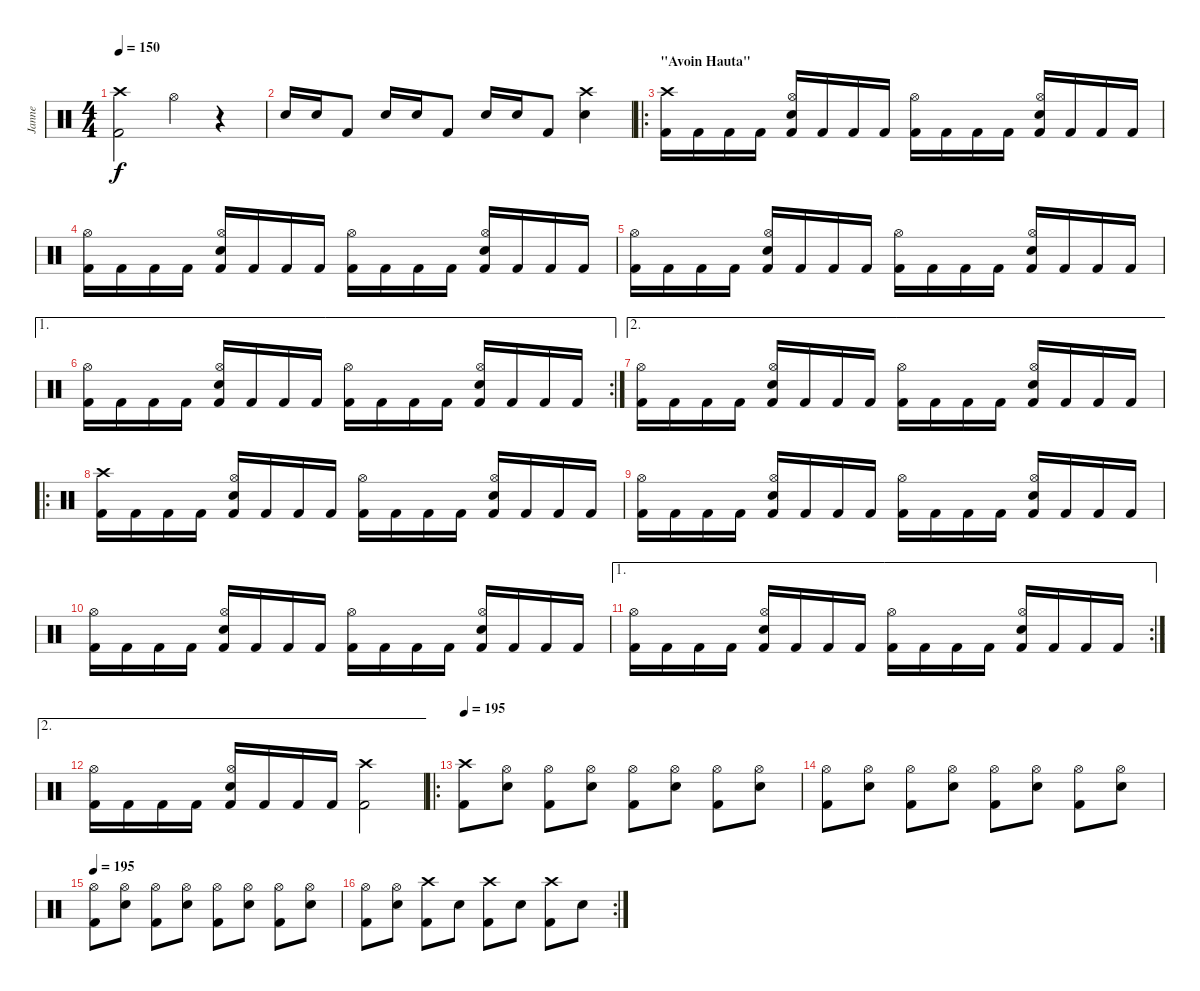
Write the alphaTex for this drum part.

\track ("Janne" "Janne") {instrument percussion}
\staff {score}
\articulation defaults
\ts (4 4)
\tempo 150
\clef neutral
\ks c
("Crash high (hit)" "Kick (hit) 2").2{dy f} "Hi-Hat (open)".4 r.4 |
"Electric Snare (hit)".16 "Electric Snare (hit)".16 "Kick (hit) 2".8 "Electric Snare (hit)".16 "Electric Snare (hit)".16 "Kick (hit) 2".8 "Electric Snare (hit)".16 "Electric Snare (hit)".16 "Kick (hit) 2".8 ("Crash high (hit)" "Electric Snare (hit)").4 |
\ro
\section ("" "\"Avoin Hauta\"")
("Crash high (hit)" "Kick (hit) 2").16 "Kick (hit) 2".16 "Kick (hit) 2".16 "Kick (hit) 2".16 ("Hi-Hat (open)" "Electric Snare (hit)" "Kick (hit) 2").16 "Kick (hit) 2".16 "Kick (hit) 2".16 "Kick (hit) 2".16 ("Hi-Hat (open)" "Kick (hit) 2").16 "Kick (hit) 2".16 "Kick (hit) 2".16 "Kick (hit) 2".16 ("Hi-Hat (open)" "Electric Snare (hit)" "Kick (hit) 2").16 "Kick (hit) 2".16 "Kick (hit) 2".16 "Kick (hit) 2".16 |
("Hi-Hat (open)" "Kick (hit) 2").16 "Kick (hit) 2".16 "Kick (hit) 2".16 "Kick (hit) 2".16 ("Hi-Hat (open)" "Electric Snare (hit)" "Kick (hit) 2").16 "Kick (hit) 2".16 "Kick (hit) 2".16 "Kick (hit) 2".16 ("Hi-Hat (open)" "Kick (hit) 2").16 "Kick (hit) 2".16 "Kick (hit) 2".16 "Kick (hit) 2".16 ("Hi-Hat (open)" "Electric Snare (hit)" "Kick (hit) 2").16 "Kick (hit) 2".16 "Kick (hit) 2".16 "Kick (hit) 2".16 |
("Hi-Hat (open)" "Kick (hit) 2").16 "Kick (hit) 2".16 "Kick (hit) 2".16 "Kick (hit) 2".16 ("Hi-Hat (open)" "Electric Snare (hit)" "Kick (hit) 2").16 "Kick (hit) 2".16 "Kick (hit) 2".16 "Kick (hit) 2".16 ("Hi-Hat (open)" "Kick (hit) 2").16 "Kick (hit) 2".16 "Kick (hit) 2".16 "Kick (hit) 2".16 ("Hi-Hat (open)" "Electric Snare (hit)" "Kick (hit) 2").16 "Kick (hit) 2".16 "Kick (hit) 2".16 "Kick (hit) 2".16 |
\ae 1
\rc 2
("Hi-Hat (open)" "Kick (hit) 2").16 "Kick (hit) 2".16 "Kick (hit) 2".16 "Kick (hit) 2".16 ("Hi-Hat (open)" "Electric Snare (hit)" "Kick (hit) 2").16 "Kick (hit) 2".16 "Kick (hit) 2".16 "Kick (hit) 2".16 ("Hi-Hat (open)" "Kick (hit) 2").16 "Kick (hit) 2".16 "Kick (hit) 2".16 "Kick (hit) 2".16 ("Hi-Hat (open)" "Electric Snare (hit)" "Kick (hit) 2").16 "Kick (hit) 2".16 "Kick (hit) 2".16 "Kick (hit) 2".16 |
\ae 2
("Hi-Hat (open)" "Kick (hit) 2").16 "Kick (hit) 2".16 "Kick (hit) 2".16 "Kick (hit) 2".16 ("Hi-Hat (open)" "Electric Snare (hit)" "Kick (hit) 2").16 "Kick (hit) 2".16 "Kick (hit) 2".16 "Kick (hit) 2".16 ("Hi-Hat (open)" "Kick (hit) 2").16 "Kick (hit) 2".16 "Kick (hit) 2".16 "Kick (hit) 2".16 ("Hi-Hat (open)" "Electric Snare (hit)" "Kick (hit) 2").16 "Kick (hit) 2".16 "Kick (hit) 2".16 "Kick (hit) 2".16 |
\ro
("Crash high (hit)" "Kick (hit) 2").16 "Kick (hit) 2".16 "Kick (hit) 2".16 "Kick (hit) 2".16 ("Hi-Hat (open)" "Electric Snare (hit)" "Kick (hit) 2").16 "Kick (hit) 2".16 "Kick (hit) 2".16 "Kick (hit) 2".16 ("Hi-Hat (open)" "Kick (hit) 2").16 "Kick (hit) 2".16 "Kick (hit) 2".16 "Kick (hit) 2".16 ("Hi-Hat (open)" "Electric Snare (hit)" "Kick (hit) 2").16 "Kick (hit) 2".16 "Kick (hit) 2".16 "Kick (hit) 2".16 |
("Hi-Hat (open)" "Kick (hit) 2").16 "Kick (hit) 2".16 "Kick (hit) 2".16 "Kick (hit) 2".16 ("Hi-Hat (open)" "Electric Snare (hit)" "Kick (hit) 2").16 "Kick (hit) 2".16 "Kick (hit) 2".16 "Kick (hit) 2".16 ("Hi-Hat (open)" "Kick (hit) 2").16 "Kick (hit) 2".16 "Kick (hit) 2".16 "Kick (hit) 2".16 ("Hi-Hat (open)" "Electric Snare (hit)" "Kick (hit) 2").16 "Kick (hit) 2".16 "Kick (hit) 2".16 "Kick (hit) 2".16 |
("Hi-Hat (open)" "Kick (hit) 2").16 "Kick (hit) 2".16 "Kick (hit) 2".16 "Kick (hit) 2".16 ("Hi-Hat (open)" "Electric Snare (hit)" "Kick (hit) 2").16 "Kick (hit) 2".16 "Kick (hit) 2".16 "Kick (hit) 2".16 ("Hi-Hat (open)" "Kick (hit) 2").16 "Kick (hit) 2".16 "Kick (hit) 2".16 "Kick (hit) 2".16 ("Hi-Hat (open)" "Electric Snare (hit)" "Kick (hit) 2").16 "Kick (hit) 2".16 "Kick (hit) 2".16 "Kick (hit) 2".16 |
\ae 1
\rc 2
("Hi-Hat (open)" "Kick (hit) 2").16 "Kick (hit) 2".16 "Kick (hit) 2".16 "Kick (hit) 2".16 ("Hi-Hat (open)" "Electric Snare (hit)" "Kick (hit) 2").16 "Kick (hit) 2".16 "Kick (hit) 2".16 "Kick (hit) 2".16 ("Hi-Hat (open)" "Kick (hit) 2").16 "Kick (hit) 2".16 "Kick (hit) 2".16 "Kick (hit) 2".16 ("Hi-Hat (open)" "Electric Snare (hit)" "Kick (hit) 2").16 "Kick (hit) 2".16 "Kick (hit) 2".16 "Kick (hit) 2".16 |
\ae 2
("Hi-Hat (open)" "Kick (hit) 2").16 "Kick (hit) 2".16 "Kick (hit) 2".16 "Kick (hit) 2".16 ("Hi-Hat (open)" "Electric Snare (hit)" "Kick (hit) 2").16 "Kick (hit) 2".16 "Kick (hit) 2".16 "Kick (hit) 2".16 ("Crash high (hit)" "Kick (hit) 2").2 |
\ro
\tempo 195
("Crash high (hit)" "Kick (hit) 2").8 ("Hi-Hat (open)" "Electric Snare (hit)").8 ("Hi-Hat (open)" "Kick (hit) 2").8 ("Hi-Hat (open)" "Electric Snare (hit)").8 ("Hi-Hat (open)" "Kick (hit) 2").8 ("Hi-Hat (open)" "Electric Snare (hit)").8 ("Hi-Hat (open)" "Kick (hit) 2").8 ("Hi-Hat (open)" "Electric Snare (hit)").8 |
("Hi-Hat (open)" "Kick (hit) 2").8 ("Hi-Hat (open)" "Electric Snare (hit)").8 ("Hi-Hat (open)" "Kick (hit) 2").8 ("Hi-Hat (open)" "Electric Snare (hit)").8 ("Hi-Hat (open)" "Kick (hit) 2").8 ("Hi-Hat (open)" "Electric Snare (hit)").8 ("Hi-Hat (open)" "Kick (hit) 2").8 ("Hi-Hat (open)" "Electric Snare (hit)").8 |
\tempo 195
("Hi-Hat (open)" "Kick (hit) 2").8 ("Hi-Hat (open)" "Electric Snare (hit)").8 ("Hi-Hat (open)" "Kick (hit) 2").8 ("Hi-Hat (open)" "Electric Snare (hit)").8 ("Hi-Hat (open)" "Kick (hit) 2").8 ("Hi-Hat (open)" "Electric Snare (hit)").8 ("Hi-Hat (open)" "Kick (hit) 2").8 ("Hi-Hat (open)" "Electric Snare (hit)").8 |
\rc 2
("Hi-Hat (open)" "Kick (hit) 2").8 ("Hi-Hat (open)" "Electric Snare (hit)").8 ("Crash high (hit)" "Kick (hit) 2").8 "Electric Snare (hit)".8 ("Crash high (hit)" "Kick (hit) 2").8 "Electric Snare (hit)".8 ("Crash high (hit)" "Kick (hit) 2").8 "Electric Snare (hit)".8
